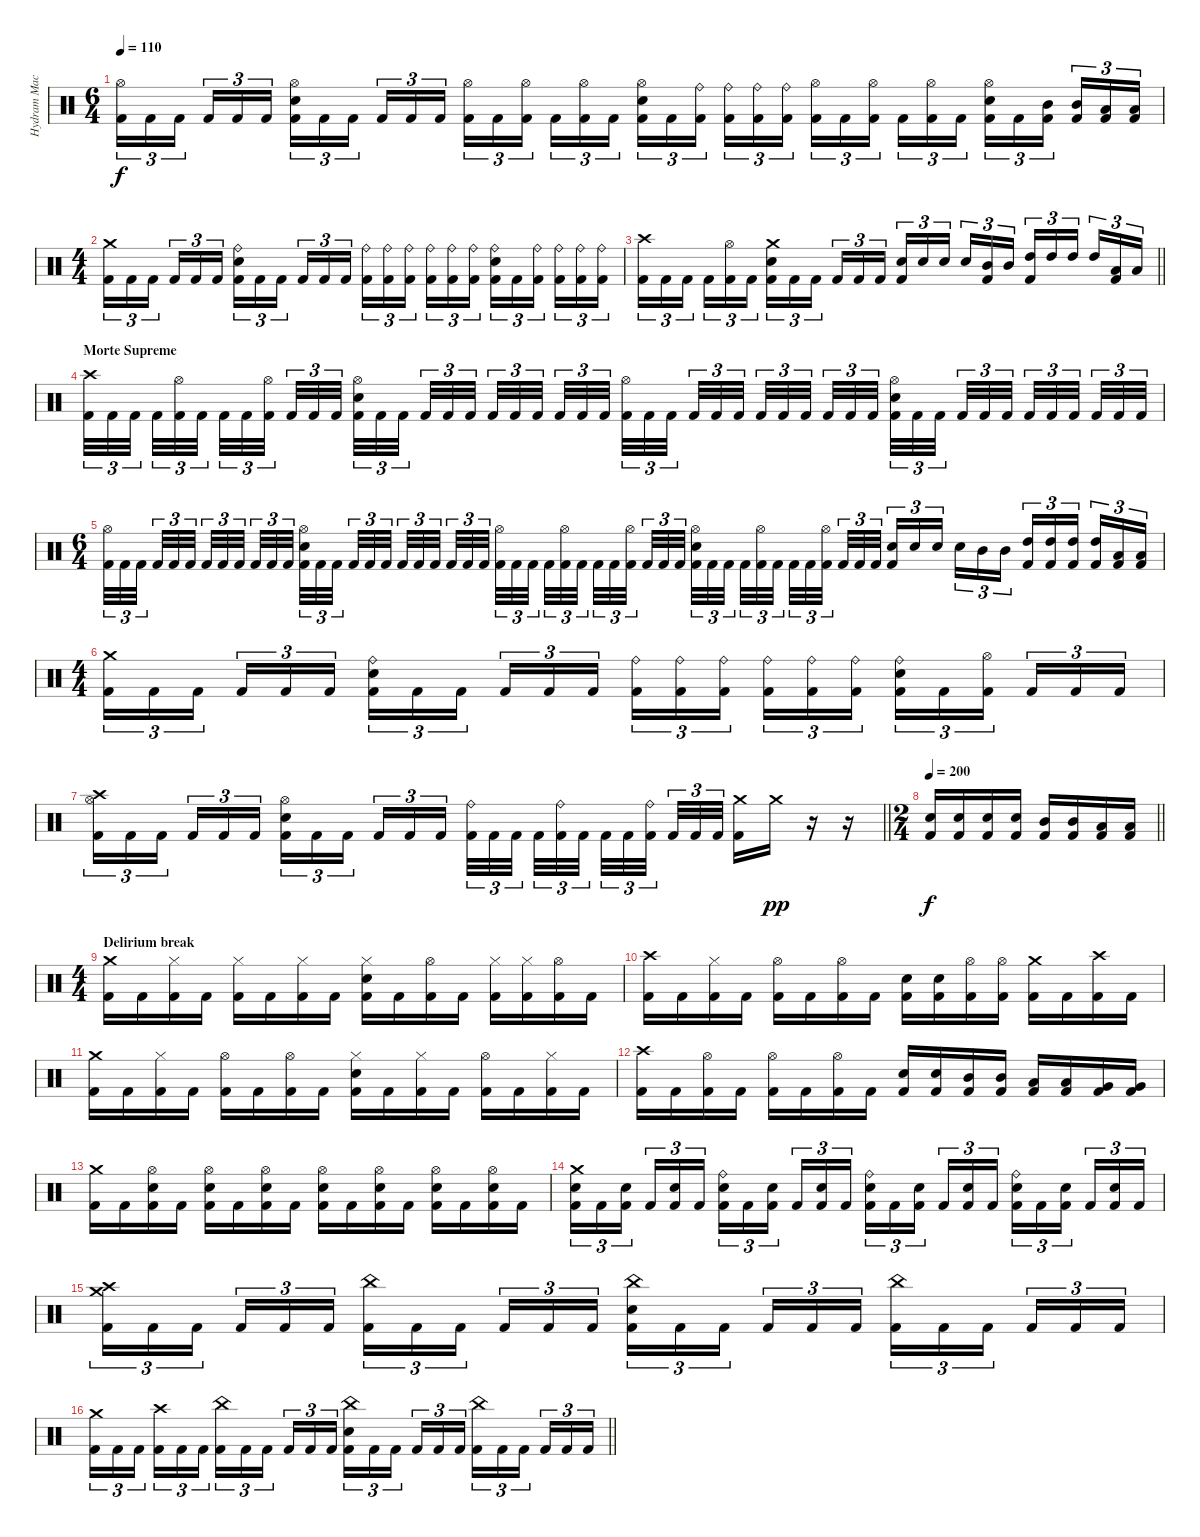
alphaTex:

\track ("Hydram Machine" "Hydram Mac") {instrument percussion}
\staff {score}
\articulation defaults
\ts (6 4)
\tempo 110
\clef neutral
\ks c
("Hi-Hat (open)" "Kick (hit) 2").16{tu (3 2) dy f} "Kick (hit) 2".16{tu (3 2)} "Kick (hit) 2".16{tu (3 2) beam splitsecondary} "Kick (hit) 2".16{tu (3 2)} "Kick (hit) 2".16{tu (3 2)} "Kick (hit) 2".16{tu (3 2) beam splitsecondary} ("Hi-Hat (open)" "Electric Snare (hit)" "Kick (hit) 2").16{tu (3 2)} "Kick (hit) 2".16{tu (3 2)} "Kick (hit) 2".16{tu (3 2) beam splitsecondary} "Kick (hit) 2".16{tu (3 2)} "Kick (hit) 2".16{tu (3 2)} "Kick (hit) 2".16{tu (3 2) beam splitsecondary} ("Hi-Hat (open)" "Kick (hit) 2").16{tu (3 2)} "Kick (hit) 2".16{tu (3 2)} ("Hi-Hat (open)" "Kick (hit) 2").16{tu (3 2) beam splitsecondary} "Kick (hit) 2".16{tu (3 2)} ("Hi-Hat (open)" "Kick (hit) 2").16{tu (3 2)} "Kick (hit) 2".16{tu (3 2)} ("Hi-Hat (open)" "Electric Snare (hit)" "Kick (hit) 2").16{tu (3 2)} "Kick (hit) 2".16{tu (3 2)} ("Ride (bell)" "Kick (hit) 2").16{tu (3 2) beam splitsecondary} ("Ride (bell)" "Kick (hit) 2").16{tu (3 2)} ("Ride (bell)" "Kick (hit) 2").16{tu (3 2)} ("Ride (bell)" "Kick (hit) 2").16{tu (3 2) beam splitsecondary} ("Hi-Hat (open)" "Kick (hit) 2").16{tu (3 2)} "Kick (hit) 2".16{tu (3 2)} ("Hi-Hat (open)" "Kick (hit) 2").16{tu (3 2) beam splitsecondary} "Kick (hit) 2".16{tu (3 2)} ("Hi-Hat (open)" "Kick (hit) 2").16{tu (3 2)} "Kick (hit) 2".16{tu (3 2) beam splitsecondary} ("Hi-Hat (open)" "Electric Snare (hit)" "Kick (hit) 2").16{tu (3 2)} "Kick (hit) 2".16{tu (3 2)} ("Mid Tom (hit)" "Kick (hit) 2").16{tu (3 2) beam splitsecondary} ("Mid Tom (hit)" "Kick (hit) 2").16{tu (3 2)} ("Low Tom (hit)" "Kick (hit) 2").16{tu (3 2)} ("Low Tom (hit)" "Kick (hit) 2").16{tu (3 2)} |
\ts (4 4)
("Crash medium (hit)" "Kick (hit) 2").16{tu (3 2)} "Kick (hit) 2".16{tu (3 2)} "Kick (hit) 2".16{tu (3 2) beam splitsecondary} "Kick (hit) 2".16{tu (3 2)} "Kick (hit) 2".16{tu (3 2)} "Kick (hit) 2".16{tu (3 2)} ("Ride (bell)" "Electric Snare (hit)" "Kick (hit) 2").16{tu (3 2)} "Kick (hit) 2".16{tu (3 2)} "Kick (hit) 2".16{tu (3 2) beam splitsecondary} "Kick (hit) 2".16{tu (3 2)} "Kick (hit) 2".16{tu (3 2)} "Kick (hit) 2".16{tu (3 2)} ("Ride (bell)" "Kick (hit) 2").16{tu (3 2)} ("Ride (bell)" "Kick (hit) 2").16{tu (3 2)} ("Ride (bell)" "Kick (hit) 2").16{tu (3 2) beam splitsecondary} ("Ride (bell)" "Kick (hit) 2").16{tu (3 2)} ("Ride (bell)" "Kick (hit) 2").16{tu (3 2)} ("Ride (bell)" "Kick (hit) 2").16{tu (3 2)} ("Ride (bell)" "Electric Snare (hit)" "Kick (hit) 2").16{tu (3 2)} "Kick (hit) 2".16{tu (3 2)} ("Ride (bell)" "Kick (hit) 2").16{tu (3 2) beam splitsecondary} ("Ride (bell)" "Kick (hit) 2").16{tu (3 2)} ("Ride (bell)" "Kick (hit) 2").16{tu (3 2)} ("Ride (bell)" "Kick (hit) 2").16{tu (3 2)} |
\barLineRight lightlight
("Crash high (hit)" "Kick (hit) 2").16{tu (3 2)} "Kick (hit) 2".16{tu (3 2)} "Kick (hit) 2".16{tu (3 2) beam splitsecondary} "Kick (hit) 2".16{tu (3 2)} ("Hi-Hat (open)" "Kick (hit) 2").16{tu (3 2)} "Kick (hit) 2".16{tu (3 2)} ("Crash medium (hit)" "Electric Snare (hit)" "Kick (hit) 2").16{tu (3 2)} "Kick (hit) 2".16{tu (3 2)} "Kick (hit) 2".16{tu (3 2) beam splitsecondary} "Kick (hit) 2".16{tu (3 2)} "Kick (hit) 2".16{tu (3 2)} "Kick (hit) 2".16{tu (3 2)} ("Electric Snare (hit)" "Kick (hit) 2").16{tu (3 2)} "Electric Snare (hit)".16{tu (3 2)} "Electric Snare (hit)".16{tu (3 2) beam splitsecondary} "Electric Snare (hit)".16{tu (3 2)} ("Mid Tom (hit)" "Kick (hit) 2").16{tu (3 2)} "Mid Tom (hit)".16{tu (3 2)} ("High Tom (hit)" "Kick (hit) 2").16{tu (3 2)} "High Tom (hit)".16{tu (3 2)} "High Tom (hit)".16{tu (3 2) beam splitsecondary} "High Tom (hit)".16{tu (3 2)} ("Low Tom (hit)" "Kick (hit) 2").16{tu (3 2)} "Low Tom (hit)".16{tu (3 2)} |
\section ("" "Morte Supreme")
("Crash high (hit)" "Kick (hit) 2").32{tu (3 2)} "Kick (hit) 2".32{tu (3 2)} "Kick (hit) 2".32{tu (3 2) beam splitsecondary} "Kick (hit) 2".32{tu (3 2)} ("Hi-Hat (open)" "Kick (hit) 2").32{tu (3 2)} "Kick (hit) 2".32{tu (3 2) beam splitsecondary} "Kick (hit) 2".32{tu (3 2)} "Kick (hit) 2".32{tu (3 2)} ("Hi-Hat (open)" "Kick (hit) 2").32{tu (3 2) beam splitsecondary} "Kick (hit) 2".32{tu (3 2)} "Kick (hit) 2".32{tu (3 2)} "Kick (hit) 2".32{tu (3 2)} ("Hi-Hat (open)" "Electric Snare (hit)" "Kick (hit) 2").32{tu (3 2)} "Kick (hit) 2".32{tu (3 2)} "Kick (hit) 2".32{tu (3 2) beam splitsecondary} "Kick (hit) 2".32{tu (3 2)} "Kick (hit) 2".32{tu (3 2)} "Kick (hit) 2".32{tu (3 2) beam splitsecondary} "Kick (hit) 2".32{tu (3 2)} "Kick (hit) 2".32{tu (3 2)} "Kick (hit) 2".32{tu (3 2) beam splitsecondary} "Kick (hit) 2".32{tu (3 2)} "Kick (hit) 2".32{tu (3 2)} "Kick (hit) 2".32{tu (3 2)} ("Hi-Hat (open)" "Kick (hit) 2").32{tu (3 2)} "Kick (hit) 2".32{tu (3 2)} "Kick (hit) 2".32{tu (3 2) beam splitsecondary} "Kick (hit) 2".32{tu (3 2)} "Kick (hit) 2".32{tu (3 2)} "Kick (hit) 2".32{tu (3 2) beam splitsecondary} "Kick (hit) 2".32{tu (3 2)} "Kick (hit) 2".32{tu (3 2)} "Kick (hit) 2".32{tu (3 2) beam splitsecondary} "Kick (hit) 2".32{tu (3 2)} "Kick (hit) 2".32{tu (3 2)} "Kick (hit) 2".32{tu (3 2)} ("Hi-Hat (open)" "Electric Snare (hit)" "Kick (hit) 2").32{tu (3 2)} "Kick (hit) 2".32{tu (3 2)} "Kick (hit) 2".32{tu (3 2) beam splitsecondary} "Kick (hit) 2".32{tu (3 2)} "Kick (hit) 2".32{tu (3 2)} "Kick (hit) 2".32{tu (3 2) beam splitsecondary} "Kick (hit) 2".32{tu (3 2)} "Kick (hit) 2".32{tu (3 2)} "Kick (hit) 2".32{tu (3 2) beam splitsecondary} "Kick (hit) 2".32{tu (3 2)} "Kick (hit) 2".32{tu (3 2)} "Kick (hit) 2".32{tu (3 2)} |
\ts (6 4)
("Hi-Hat (open)" "Kick (hit) 2").32{tu (3 2)} "Kick (hit) 2".32{tu (3 2)} "Kick (hit) 2".32{tu (3 2) beam splitsecondary} "Kick (hit) 2".32{tu (3 2)} "Kick (hit) 2".32{tu (3 2)} "Kick (hit) 2".32{tu (3 2) beam splitsecondary} "Kick (hit) 2".32{tu (3 2)} "Kick (hit) 2".32{tu (3 2)} "Kick (hit) 2".32{tu (3 2) beam splitsecondary} "Kick (hit) 2".32{tu (3 2)} "Kick (hit) 2".32{tu (3 2)} "Kick (hit) 2".32{tu (3 2) beam splitsecondary} ("Hi-Hat (open)" "Electric Snare (hit)" "Kick (hit) 2").32{tu (3 2)} "Kick (hit) 2".32{tu (3 2)} "Kick (hit) 2".32{tu (3 2) beam splitsecondary} "Kick (hit) 2".32{tu (3 2)} "Kick (hit) 2".32{tu (3 2)} "Kick (hit) 2".32{tu (3 2) beam splitsecondary} "Kick (hit) 2".32{tu (3 2)} "Kick (hit) 2".32{tu (3 2)} "Kick (hit) 2".32{tu (3 2) beam splitsecondary} "Kick (hit) 2".32{tu (3 2)} "Kick (hit) 2".32{tu (3 2)} "Kick (hit) 2".32{tu (3 2) beam splitsecondary} ("Hi-Hat (open)" "Kick (hit) 2").32{tu (3 2)} "Kick (hit) 2".32{tu (3 2)} "Kick (hit) 2".32{tu (3 2) beam splitsecondary} "Kick (hit) 2".32{tu (3 2)} ("Hi-Hat (open)" "Kick (hit) 2").32{tu (3 2)} "Kick (hit) 2".32{tu (3 2) beam splitsecondary} "Kick (hit) 2".32{tu (3 2)} "Kick (hit) 2".32{tu (3 2)} ("Hi-Hat (open)" "Kick (hit) 2").32{tu (3 2) beam splitsecondary} "Kick (hit) 2".32{tu (3 2)} "Kick (hit) 2".32{tu (3 2)} "Kick (hit) 2".32{tu (3 2)} ("Hi-Hat (open)" "Electric Snare (hit)" "Kick (hit) 2").32{tu (3 2)} "Kick (hit) 2".32{tu (3 2)} "Kick (hit) 2".32{tu (3 2) beam splitsecondary} "Kick (hit) 2".32{tu (3 2)} ("Hi-Hat (open)" "Kick (hit) 2").32{tu (3 2)} "Kick (hit) 2".32{tu (3 2) beam splitsecondary} "Kick (hit) 2".32{tu (3 2)} "Kick (hit) 2".32{tu (3 2)} ("Hi-Hat (open)" "Kick (hit) 2").32{tu (3 2) beam splitsecondary} "Kick (hit) 2".32{tu (3 2)} "Kick (hit) 2".32{tu (3 2)} "Kick (hit) 2".32{tu (3 2) beam splitsecondary} ("Electric Snare (hit)" "Kick (hit) 2").16{tu (3 2)} "Electric Snare (hit)".16{tu (3 2)} "Electric Snare (hit)".16{tu (3 2) beam splitsecondary} "Electric Snare (hit)".16{tu (3 2)} "Mid Tom (hit)".16{tu (3 2)} "Mid Tom (hit)".16{tu (3 2) beam splitsecondary} ("High Tom (hit)" "Kick (hit) 2").16{tu (3 2)} ("High Tom (hit)" "Kick (hit) 2").16{tu (3 2)} ("High Tom (hit)" "Kick (hit) 2").16{tu (3 2) beam splitsecondary} ("High Tom (hit)" "Kick (hit) 2").16{tu (3 2)} ("Low Tom (hit)" "Kick (hit) 2").16{tu (3 2)} ("Low Tom (hit)" "Kick (hit) 2").16{tu (3 2)} |
\ts (4 4)
("Crash medium (hit)" "Kick (hit) 2").16{tu (3 2)} "Kick (hit) 2".16{tu (3 2)} "Kick (hit) 2".16{tu (3 2) beam splitsecondary} "Kick (hit) 2".16{tu (3 2)} "Kick (hit) 2".16{tu (3 2)} "Kick (hit) 2".16{tu (3 2)} ("Ride (bell)" "Electric Snare (hit)" "Kick (hit) 2").16{tu (3 2)} "Kick (hit) 2".16{tu (3 2)} "Kick (hit) 2".16{tu (3 2) beam splitsecondary} "Kick (hit) 2".16{tu (3 2)} "Kick (hit) 2".16{tu (3 2)} "Kick (hit) 2".16{tu (3 2)} ("Ride (bell)" "Kick (hit) 2").16{tu (3 2)} ("Ride (bell)" "Kick (hit) 2").16{tu (3 2)} ("Ride (bell)" "Kick (hit) 2").16{tu (3 2) beam splitsecondary} ("Ride (bell)" "Kick (hit) 2").16{tu (3 2)} ("Ride (bell)" "Kick (hit) 2").16{tu (3 2)} ("Ride (bell)" "Kick (hit) 2").16{tu (3 2)} ("Ride (bell)" "Electric Snare (hit)" "Kick (hit) 2").16{tu (3 2)} "Kick (hit) 2".16{tu (3 2)} ("Hi-Hat (open)" "Kick (hit) 2").16{tu (3 2) beam splitsecondary} "Kick (hit) 2".16{tu (3 2)} "Kick (hit) 2".16{tu (3 2)} "Kick (hit) 2".16{tu (3 2)} |
\barLineRight lightlight
("Hi-Hat (open)" "Crash high (hit)" "Kick (hit) 2").16{tu (3 2)} "Kick (hit) 2".16{tu (3 2)} "Kick (hit) 2".16{tu (3 2) beam splitsecondary} "Kick (hit) 2".16{tu (3 2)} "Kick (hit) 2".16{tu (3 2)} "Kick (hit) 2".16{tu (3 2)} ("Hi-Hat (open)" "Electric Snare (hit)" "Kick (hit) 2").16{tu (3 2)} "Kick (hit) 2".16{tu (3 2)} "Kick (hit) 2".16{tu (3 2) beam splitsecondary} "Kick (hit) 2".16{tu (3 2)} "Kick (hit) 2".16{tu (3 2)} "Kick (hit) 2".16{tu (3 2)} ("Ride (bell)" "Kick (hit) 2").32{tu (3 2)} "Kick (hit) 2".32{tu (3 2)} "Kick (hit) 2".32{tu (3 2) beam splitsecondary} "Kick (hit) 2".32{tu (3 2)} ("Ride (bell)" "Kick (hit) 2").32{tu (3 2)} "Kick (hit) 2".32{tu (3 2) beam splitsecondary} "Kick (hit) 2".32{tu (3 2)} "Kick (hit) 2".32{tu (3 2)} ("Ride (bell)" "Kick (hit) 2").32{tu (3 2) beam splitsecondary} "Kick (hit) 2".32{tu (3 2)} "Kick (hit) 2".32{tu (3 2)} "Kick (hit) 2".32{tu (3 2)} ("Crash medium (hit)" "Kick (hit) 2").16 "Crash medium (hit)".16{dy pp} r.16 r.16 |
\ts (2 4)
\tempo 200
\barLineRight lightlight
("Electric Snare (hit)" "Kick (hit) 2").16{dy f} ("Electric Snare (hit)" "Kick (hit) 2").16 ("Electric Snare (hit)" "Kick (hit) 2").16 ("Electric Snare (hit)" "Kick (hit) 2").16 ("Mid Tom (hit)" "Kick (hit) 2").16 ("Mid Tom (hit)" "Kick (hit) 2").16 ("Low Tom (hit)" "Kick (hit) 2").16 ("Low Tom (hit)" "Kick (hit) 2").16 |
\ts (4 4)
\section ("" "Delirium break")
("Crash medium (hit)" "Kick (hit) 2").16 "Kick (hit) 2".16 ("Hi-Hat (closed)" "Kick (hit) 2").16 "Kick (hit) 2".16 ("Hi-Hat (closed)" "Kick (hit) 2").16 "Kick (hit) 2".16 ("Hi-Hat (closed)" "Kick (hit) 2").16 "Kick (hit) 2".16 ("Hi-Hat (closed)" "Electric Snare (hit)" "Kick (hit) 2").16 "Kick (hit) 2".16 ("Hi-Hat (open)" "Kick (hit) 2").16 "Kick (hit) 2".16 ("Hi-Hat (closed)" "Kick (hit) 2").16 ("Hi-Hat (closed)" "Kick (hit) 2").16 ("Hi-Hat (open)" "Kick (hit) 2").16 "Kick (hit) 2".16 |
("Crash high (hit)" "Kick (hit) 2").16 "Kick (hit) 2".16 ("Hi-Hat (closed)" "Kick (hit) 2").16 "Kick (hit) 2".16 ("Hi-Hat (open)" "Kick (hit) 2").16 "Kick (hit) 2".16 ("Hi-Hat (open)" "Kick (hit) 2").16 "Kick (hit) 2".16 ("Electric Snare (hit)" "Kick (hit) 2").16 ("Electric Snare (hit)" "Kick (hit) 2").16 ("Hi-Hat (open)" "Kick (hit) 2").16 ("Hi-Hat (open)" "Kick (hit) 2").16 ("Crash medium (hit)" "Kick (hit) 2").16 "Kick (hit) 2".16 ("Crash high (hit)" "Kick (hit) 2").16 "Kick (hit) 2".16 |
("Crash medium (hit)" "Kick (hit) 2").16 "Kick (hit) 2".16 ("Hi-Hat (closed)" "Kick (hit) 2").16 "Kick (hit) 2".16 ("Hi-Hat (open)" "Kick (hit) 2").16 "Kick (hit) 2".16 ("Hi-Hat (open)" "Kick (hit) 2").16 "Kick (hit) 2".16 ("Hi-Hat (closed)" "Electric Snare (hit)" "Kick (hit) 2").16 "Kick (hit) 2".16 ("Hi-Hat (closed)" "Kick (hit) 2").16 "Kick (hit) 2".16 ("Hi-Hat (open)" "Kick (hit) 2").16 "Kick (hit) 2".16 ("Hi-Hat (closed)" "Kick (hit) 2").16 "Kick (hit) 2".16 |
("Crash high (hit)" "Kick (hit) 2").16 "Kick (hit) 2".16 ("Hi-Hat (open)" "Kick (hit) 2").16 "Kick (hit) 2".16 ("Hi-Hat (open)" "Kick (hit) 2").16 "Kick (hit) 2".16 ("Hi-Hat (open)" "Kick (hit) 2").16 "Kick (hit) 2".16 ("Electric Snare (hit)" "Kick (hit) 2").16 ("Electric Snare (hit)" "Kick (hit) 2").16 ("Mid Tom (hit)" "Kick (hit) 2").16 ("Mid Tom (hit)" "Kick (hit) 2").16 ("Low Tom (hit)" "Kick (hit) 2").16 ("Low Tom (hit)" "Kick (hit) 2").16 ("Very Low Tom (hit)" "Kick (hit) 2").16 ("Very Low Tom (hit)" "Kick (hit) 2").16 |
("Crash medium (hit)" "Kick (hit) 2").16 "Kick (hit) 2".16 ("Hi-Hat (open)" "Electric Snare (hit)" "Kick (hit) 2").16 "Kick (hit) 2".16 ("Hi-Hat (open)" "Electric Snare (hit)" "Kick (hit) 2").16 "Kick (hit) 2".16 ("Hi-Hat (open)" "Electric Snare (hit)" "Kick (hit) 2").16 "Kick (hit) 2".16 ("Hi-Hat (open)" "Electric Snare (hit)" "Kick (hit) 2").16 "Kick (hit) 2".16 ("Hi-Hat (open)" "Electric Snare (hit)" "Kick (hit) 2").16 "Kick (hit) 2".16 ("Hi-Hat (open)" "Electric Snare (hit)" "Kick (hit) 2").16 "Kick (hit) 2".16 ("Hi-Hat (open)" "Electric Snare (hit)" "Kick (hit) 2").16 "Kick (hit) 2".16 |
("Crash medium (hit)" "Electric Snare (hit)" "Kick (hit) 2").16{tu (3 2)} "Kick (hit) 2".16{tu (3 2)} ("Electric Snare (hit)" "Kick (hit) 2").16{tu (3 2) beam splitsecondary} "Kick (hit) 2".16{tu (3 2)} ("Electric Snare (hit)" "Kick (hit) 2").16{tu (3 2)} "Kick (hit) 2".16{tu (3 2)} ("Ride (bell)" "Electric Snare (hit)" "Kick (hit) 2").16{tu (3 2)} "Kick (hit) 2".16{tu (3 2)} ("Electric Snare (hit)" "Kick (hit) 2").16{tu (3 2) beam splitsecondary} "Kick (hit) 2".16{tu (3 2)} ("Electric Snare (hit)" "Kick (hit) 2").16{tu (3 2)} "Kick (hit) 2".16{tu (3 2)} ("Ride (bell)" "Electric Snare (hit)" "Kick (hit) 2").16{tu (3 2)} "Kick (hit) 2".16{tu (3 2)} ("Electric Snare (hit)" "Kick (hit) 2").16{tu (3 2) beam splitsecondary} "Kick (hit) 2".16{tu (3 2)} ("Electric Snare (hit)" "Kick (hit) 2").16{tu (3 2)} "Kick (hit) 2".16{tu (3 2)} ("Ride (bell)" "Electric Snare (hit)" "Kick (hit) 2").16{tu (3 2)} "Kick (hit) 2".16{tu (3 2)} ("Electric Snare (hit)" "Kick (hit) 2").16{tu (3 2) beam splitsecondary} "Kick (hit) 2".16{tu (3 2)} ("Electric Snare (hit)" "Kick (hit) 2").16{tu (3 2)} "Kick (hit) 2".16{tu (3 2)} |
("Crash medium (hit)" "Crash high (hit)" "Kick (hit) 2").16{tu (3 2)} "Kick (hit) 2".16{tu (3 2)} "Kick (hit) 2".16{tu (3 2) beam splitsecondary} "Kick (hit) 2".16{tu (3 2)} "Kick (hit) 2".16{tu (3 2)} "Kick (hit) 2".16{tu (3 2)} ("China (hit)" "Kick (hit) 2").16{tu (3 2)} "Kick (hit) 2".16{tu (3 2)} "Kick (hit) 2".16{tu (3 2) beam splitsecondary} "Kick (hit) 2".16{tu (3 2)} "Kick (hit) 2".16{tu (3 2)} "Kick (hit) 2".16{tu (3 2)} ("China (hit)" "Electric Snare (hit)" "Kick (hit) 2").16{tu (3 2)} "Kick (hit) 2".16{tu (3 2)} "Kick (hit) 2".16{tu (3 2) beam splitsecondary} "Kick (hit) 2".16{tu (3 2)} "Kick (hit) 2".16{tu (3 2)} "Kick (hit) 2".16{tu (3 2)} ("China (hit)" "Kick (hit) 2").16{tu (3 2)} "Kick (hit) 2".16{tu (3 2)} "Kick (hit) 2".16{tu (3 2) beam splitsecondary} "Kick (hit) 2".16{tu (3 2)} "Kick (hit) 2".16{tu (3 2)} "Kick (hit) 2".16{tu (3 2)} |
\barLineRight lightlight
("Crash medium (hit)" "Kick (hit) 2").16{tu (3 2)} "Kick (hit) 2".16{tu (3 2)} "Kick (hit) 2".16{tu (3 2) beam splitsecondary} ("Crash high (hit)" "Kick (hit) 2").16{tu (3 2)} "Kick (hit) 2".16{tu (3 2)} "Kick (hit) 2".16{tu (3 2)} ("China (hit)" "Kick (hit) 2").16{tu (3 2)} "Kick (hit) 2".16{tu (3 2)} "Kick (hit) 2".16{tu (3 2) beam splitsecondary} "Kick (hit) 2".16{tu (3 2)} "Kick (hit) 2".16{tu (3 2)} "Kick (hit) 2".16{tu (3 2)} ("China (hit)" "Electric Snare (hit)" "Kick (hit) 2").16{tu (3 2)} "Kick (hit) 2".16{tu (3 2)} "Kick (hit) 2".16{tu (3 2) beam splitsecondary} "Kick (hit) 2".16{tu (3 2)} "Kick (hit) 2".16{tu (3 2)} "Kick (hit) 2".16{tu (3 2)} ("China (hit)" "Kick (hit) 2").16{tu (3 2)} "Kick (hit) 2".16{tu (3 2)} "Kick (hit) 2".16{tu (3 2) beam splitsecondary} "Kick (hit) 2".16{tu (3 2)} "Kick (hit) 2".16{tu (3 2)} "Kick (hit) 2".16{tu (3 2)}
